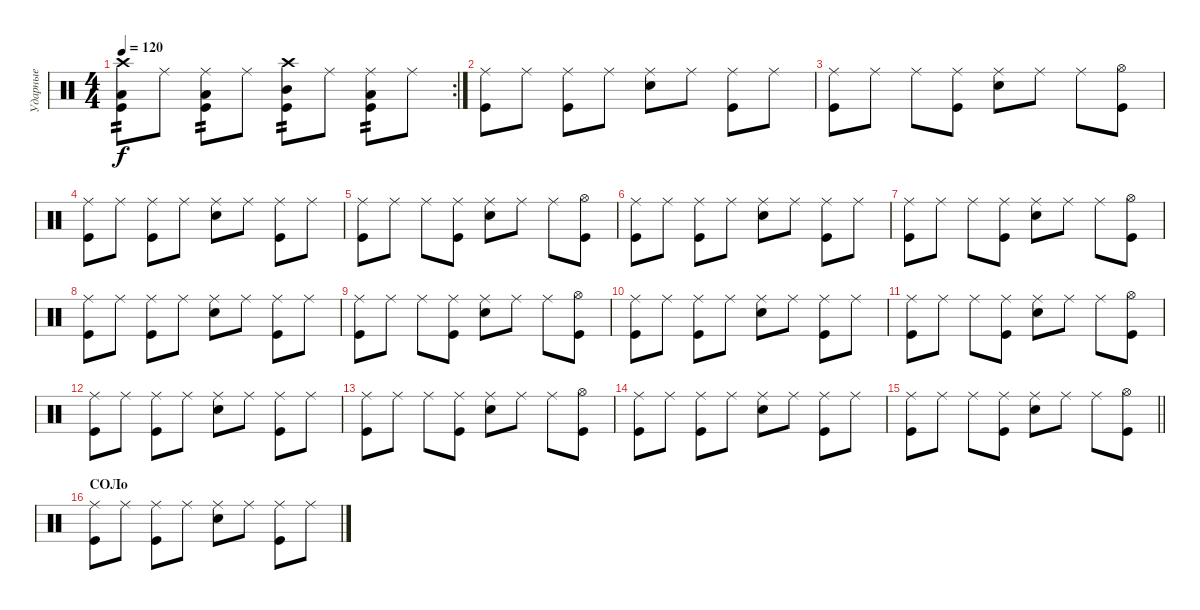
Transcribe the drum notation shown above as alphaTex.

\track ("Ударные" "Ударные") {instrument percussion}
\staff {score}
\articulation defaults
\rc 2
\ts (4 4)
\tempo 120
\clef neutral
\ks c
("Crash high (hit)" "Kick (hit)" "Low Tom (hit)").8{tp 2 dy f} "Ride (middle)".8 ("Ride (middle)" "Kick (hit)" "Low Tom (hit)").8{tp 2} "Ride (middle)".8 ("Crash high (hit)" "Kick (hit)" "Mid Tom (hit)").8{tp 2} "Ride (middle)".8 ("Ride (middle)" "Kick (hit)" "Low Tom (hit)").8{tp 2} "Ride (middle)".8 |
("Ride (middle)" "Kick (hit)").8{volume 8} "Ride (middle)".8 ("Ride (middle)" "Kick (hit)").8 "Ride (middle)".8 ("Ride (middle)" "Snare (hit) 2").8 "Ride (middle)".8 ("Ride (middle)" "Kick (hit)").8 "Ride (middle)".8 |
("Ride (middle)" "Kick (hit)").8 "Ride (middle)".8 "Ride (middle)".8 ("Ride (middle)" "Kick (hit)").8 ("Ride (middle)" "Snare (hit) 2").8 "Ride (middle)".8 "Ride (middle)".8 ("Hi-Hat (open)" "Kick (hit)").8 |
("Ride (middle)" "Kick (hit)").8{volume 8} "Ride (middle)".8 ("Ride (middle)" "Kick (hit)").8 "Ride (middle)".8 ("Ride (middle)" "Snare (hit) 2").8 "Ride (middle)".8 ("Ride (middle)" "Kick (hit)").8 "Ride (middle)".8 |
("Ride (middle)" "Kick (hit)").8 "Ride (middle)".8 "Ride (middle)".8 ("Ride (middle)" "Kick (hit)").8 ("Ride (middle)" "Snare (hit) 2").8 "Ride (middle)".8 "Ride (middle)".8 ("Hi-Hat (open)" "Kick (hit)").8 |
("Ride (middle)" "Kick (hit)").8{volume 8} "Ride (middle)".8 ("Ride (middle)" "Kick (hit)").8 "Ride (middle)".8 ("Ride (middle)" "Snare (hit) 2").8 "Ride (middle)".8 ("Ride (middle)" "Kick (hit)").8 "Ride (middle)".8 |
("Ride (middle)" "Kick (hit)").8 "Ride (middle)".8 "Ride (middle)".8 ("Ride (middle)" "Kick (hit)").8 ("Ride (middle)" "Snare (hit) 2").8 "Ride (middle)".8 "Ride (middle)".8 ("Hi-Hat (open)" "Kick (hit)").8 |
("Ride (middle)" "Kick (hit)").8{volume 8} "Ride (middle)".8 ("Ride (middle)" "Kick (hit)").8 "Ride (middle)".8 ("Ride (middle)" "Snare (hit) 2").8 "Ride (middle)".8 ("Ride (middle)" "Kick (hit)").8 "Ride (middle)".8 |
("Ride (middle)" "Kick (hit)").8 "Ride (middle)".8 "Ride (middle)".8 ("Ride (middle)" "Kick (hit)").8 ("Ride (middle)" "Snare (hit) 2").8 "Ride (middle)".8 "Ride (middle)".8 ("Hi-Hat (open)" "Kick (hit)").8 |
("Ride (middle)" "Kick (hit)").8{volume 8} "Ride (middle)".8 ("Ride (middle)" "Kick (hit)").8 "Ride (middle)".8 ("Ride (middle)" "Snare (hit) 2").8 "Ride (middle)".8 ("Ride (middle)" "Kick (hit)").8 "Ride (middle)".8 |
("Ride (middle)" "Kick (hit)").8 "Ride (middle)".8 "Ride (middle)".8 ("Ride (middle)" "Kick (hit)").8 ("Ride (middle)" "Snare (hit) 2").8 "Ride (middle)".8 "Ride (middle)".8 ("Hi-Hat (open)" "Kick (hit)").8 |
("Ride (middle)" "Kick (hit)").8{volume 8} "Ride (middle)".8 ("Ride (middle)" "Kick (hit)").8 "Ride (middle)".8 ("Ride (middle)" "Snare (hit) 2").8 "Ride (middle)".8 ("Ride (middle)" "Kick (hit)").8 "Ride (middle)".8 |
("Ride (middle)" "Kick (hit)").8 "Ride (middle)".8 "Ride (middle)".8 ("Ride (middle)" "Kick (hit)").8 ("Ride (middle)" "Snare (hit) 2").8 "Ride (middle)".8 "Ride (middle)".8 ("Hi-Hat (open)" "Kick (hit)").8 |
("Ride (middle)" "Kick (hit)").8{volume 8} "Ride (middle)".8 ("Ride (middle)" "Kick (hit)").8 "Ride (middle)".8 ("Ride (middle)" "Snare (hit) 2").8 "Ride (middle)".8 ("Ride (middle)" "Kick (hit)").8 "Ride (middle)".8 |
\barLineRight lightlight
("Ride (middle)" "Kick (hit)").8 "Ride (middle)".8 "Ride (middle)".8 ("Ride (middle)" "Kick (hit)").8 ("Ride (middle)" "Snare (hit) 2").8 "Ride (middle)".8 "Ride (middle)".8 ("Hi-Hat (open)" "Kick (hit)").8 |
\section ("" "СОЛо")
("Ride (middle)" "Kick (hit)").8{volume 8} "Ride (middle)".8 ("Ride (middle)" "Kick (hit)").8 "Ride (middle)".8 ("Ride (middle)" "Snare (hit) 2").8 "Ride (middle)".8 ("Ride (middle)" "Kick (hit)").8 "Ride (middle)".8
